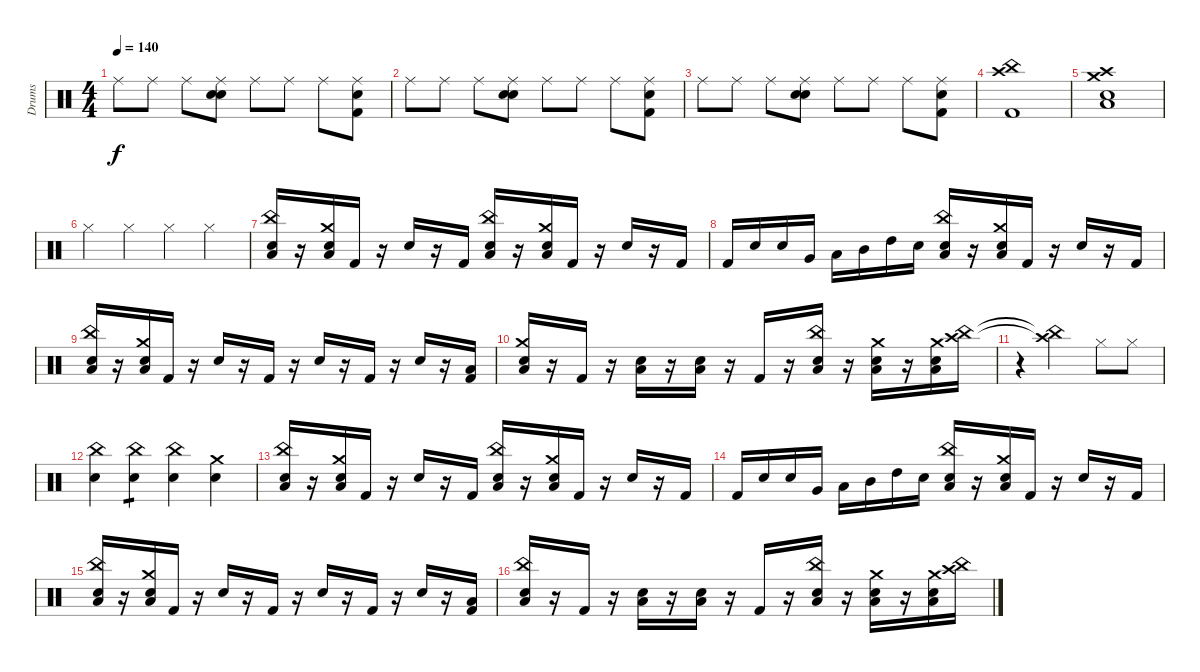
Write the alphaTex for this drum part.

\track ("Drums" "Drums") {instrument percussion}
\staff {score}
\articulation defaults
\ts (4 4)
\tempo 140
\clef neutral
\ks c "Ride (middle)".8{dy f} "Ride (middle)".8 "Ride (middle)".8
("Ride (middle)" "Snare (hit) 2" "Electric Snare (hit)").8 "Ride (middle)".8 "Ride (middle)".8 "Ride (middle)".8 ("Ride (middle)" "Kick (hit) 2" "Electric Snare (hit)").8 |
"Ride (middle)".8 "Ride (middle)".8 "Ride (middle)".8 ("Ride (middle)" "Snare (hit) 2" "Electric Snare (hit)").8 "Ride (middle)".8 "Ride (middle)".8 "Ride (middle)".8 ("Ride (middle)" "Kick (hit) 2" "Electric Snare (hit)").8 |
"Ride (middle)".8 "Ride (middle)".8 "Ride (middle)".8 ("Ride (middle)" "Snare (hit) 2" "Electric Snare (hit)").8 "Ride (middle)".8 "Ride (middle)".8 "Ride (middle)".8 ("Ride (middle)" "Kick (hit) 2" "Electric Snare (hit)").8 |
("China (hit)" "Crash high (hit)" "Kick (hit) 2").1 |
("Crash medium (hit)" "Crash high (hit)" "Snare (hit) 2" "Low Floor Tom (hit)").1 |
"Hi-Hat (closed)".4 "Hi-Hat (closed)".4 "Hi-Hat (closed)".4 "Hi-Hat (closed)".4 |
("Snare (hit) 2" "Low Floor Tom (hit)" "China (hit)").16 r.16 ("Snare (hit) 2" "Low Floor Tom (hit)" "Crash medium (hit)").16 "Kick (hit) 2".16 r.16 "Snare (hit) 2".16 r.16 "Kick (hit) 2".16 ("Snare (hit) 2" "Low Floor Tom (hit)" "China (hit)").16 r.16 ("Snare (hit) 2" "Low Floor Tom (hit)" "Crash medium (hit)").16 "Kick (hit) 2".16 r.16 "Snare (hit) 2".16 r.16 "Kick (hit) 2".16 |
"Kick (hit) 2".16 "Snare (hit) 2".16 "Electric Snare (hit)".16 "Very Low Tom (hit)".16 "Low Tom (hit)".16 "Mid Tom (hit)".16 "High Tom (hit)".16 "Snare (hit) 2".16 ("Snare (hit) 2" "Low Floor Tom (hit)" "China (hit)").16 r.16 ("Snare (hit) 2" "Low Floor Tom (hit)" "Crash medium (hit)").16 "Kick (hit) 2".16 r.16 "Snare (hit) 2".16 r.16 "Kick (hit) 2".16 |
("Snare (hit) 2" "Low Floor Tom (hit)" "China (hit)").16 r.16 ("Snare (hit) 2" "Low Floor Tom (hit)" "Crash medium (hit)").16 "Kick (hit) 2".16 r.16 "Snare (hit) 2".16 r.16 "Kick (hit) 2".16 r.16 "Snare (hit) 2".16 r.16 "Kick (hit) 2".16 r.16 "Snare (hit) 2".16 r.16 ("Kick (hit) 2" "Low Floor Tom (hit)").16 |
("Snare (hit) 2" "Low Floor Tom (hit)" "Crash medium (hit)").16 r.16 "Kick (hit) 2".16 r.16 ("Snare (hit) 2" "Low Floor Tom (hit)").16 r.16 ("Snare (hit) 2" "Low Floor Tom (hit)").16 r.16 "Kick (hit) 2".16 r.16 ("Snare (hit) 2" "Low Floor Tom (hit)" "China (hit)").16 r.16 ("Snare (hit) 2" "Low Floor Tom (hit)" "Crash medium (hit)").16 r.16 ("Snare (hit) 2" "Low Floor Tom (hit)" "Crash medium (hit)").16 ("Crash high (hit)" "China (hit)").16 |
r.4 ("Crash high (hit)"{t} "China (hit)"{t}).2 "Hi-Hat (closed)".8 "Hi-Hat (closed)".8 |
("Electric Snare (hit)" "China (hit)").4 ("Electric Snare (hit)" "China (hit)").4{tp 1} ("Electric Snare (hit)" "China (hit)").4 ("Electric Snare (hit)" "Crash medium (hit)").4 |
("Snare (hit) 2" "Low Floor Tom (hit)" "China (hit)").16 r.16 ("Snare (hit) 2" "Low Floor Tom (hit)" "Crash medium (hit)").16 "Kick (hit) 2".16 r.16 "Snare (hit) 2".16 r.16 "Kick (hit) 2".16 ("Snare (hit) 2" "Low Floor Tom (hit)" "China (hit)").16 r.16 ("Snare (hit) 2" "Low Floor Tom (hit)" "Crash medium (hit)").16 "Kick (hit) 2".16 r.16 "Snare (hit) 2".16 r.16 "Kick (hit) 2".16 |
"Kick (hit) 2".16 "Snare (hit) 2".16 "Electric Snare (hit)".16 "Very Low Tom (hit)".16 "Low Tom (hit)".16 "Mid Tom (hit)".16 "High Tom (hit)".16 "Snare (hit) 2".16 ("Snare (hit) 2" "Low Floor Tom (hit)" "China (hit)").16 r.16 ("Snare (hit) 2" "Low Floor Tom (hit)" "Crash medium (hit)").16 "Kick (hit) 2".16 r.16 "Snare (hit) 2".16 r.16 "Kick (hit) 2".16 |
("Snare (hit) 2" "Low Floor Tom (hit)" "China (hit)").16 r.16 ("Snare (hit) 2" "Low Floor Tom (hit)" "Crash medium (hit)").16 "Kick (hit) 2".16 r.16 "Snare (hit) 2".16 r.16 "Kick (hit) 2".16 r.16 "Snare (hit) 2".16 r.16 "Kick (hit) 2".16 r.16 "Snare (hit) 2".16 r.16 ("Kick (hit) 2" "Low Floor Tom (hit)").16 |
("Snare (hit) 2" "Low Floor Tom (hit)" "China (hit)").16 r.16 "Kick (hit) 2".16 r.16 ("Snare (hit) 2" "Low Floor Tom (hit)").16 r.16 ("Snare (hit) 2" "Low Floor Tom (hit)").16 r.16 "Kick (hit) 2".16 r.16 ("Snare (hit) 2" "Low Floor Tom (hit)" "China (hit)").16 r.16 ("Snare (hit) 2" "Low Floor Tom (hit)" "Crash medium (hit)").16 r.16 ("Snare (hit) 2" "Low Floor Tom (hit)" "Crash medium (hit)").16 ("Crash high (hit)" "China (hit)").16
